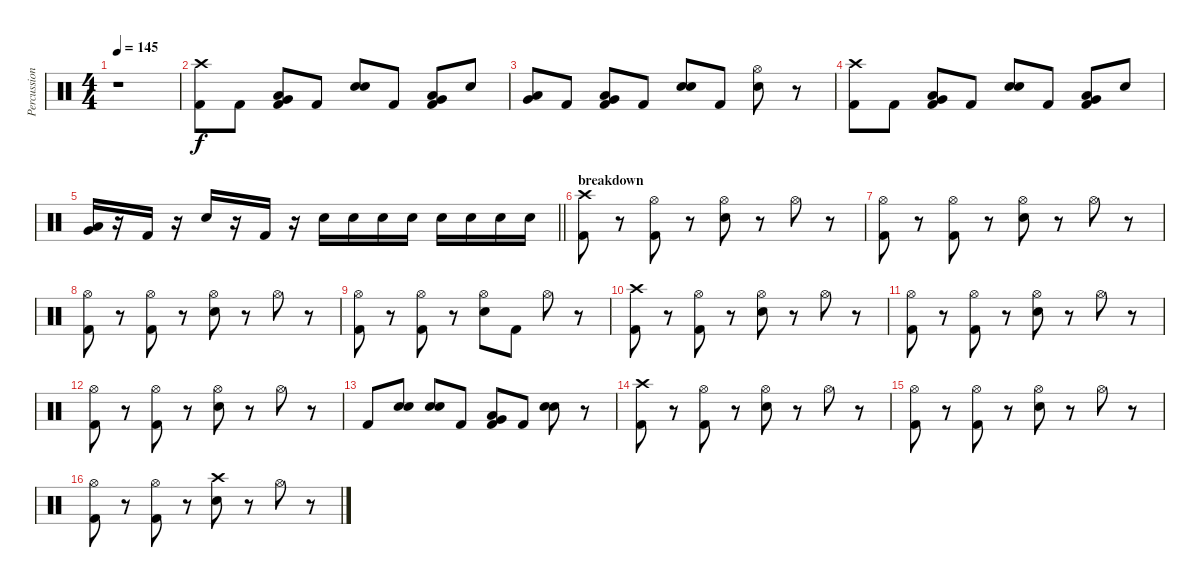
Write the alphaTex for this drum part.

\track ("Percussion" "Percussion") {instrument percussion}
\staff {score}
\articulation defaults
\ts (4 4)
\tempo 145
\clef neutral
\ks c
r.1{dy f} |
("Crash high (hit)" "Kick (hit) 2").8 "Kick (hit) 2".8 ("Low Tom (hit)" "Very Low Tom (hit)" "Kick (hit) 2").8 "Kick (hit) 2".8 ("Electric Snare (hit)" "Electric Snare (hit)").8 "Kick (hit) 2".8 ("Low Tom (hit)" "Very Low Tom (hit)" "Kick (hit) 2").8 "Electric Snare (hit)".8 |
("Low Tom (hit)" "Very Low Tom (hit)").8 "Kick (hit) 2".8 ("Low Tom (hit)" "Very Low Tom (hit)" "Kick (hit) 2").8 "Kick (hit) 2".8 ("Electric Snare (hit)" "Electric Snare (hit)").8 "Kick (hit) 2".8 ("Hi-Hat (open)" "Electric Snare (hit)").8 r.8 |
("Crash high (hit)" "Kick (hit) 2").8 "Kick (hit) 2".8 ("Low Tom (hit)" "Very Low Tom (hit)" "Kick (hit) 2").8 "Kick (hit) 2".8 ("Electric Snare (hit)" "Electric Snare (hit)").8 "Kick (hit) 2".8 ("Low Tom (hit)" "Very Low Tom (hit)" "Kick (hit) 2").8 "Electric Snare (hit)".8 |
\barLineRight lightlight
("Low Tom (hit)" "Very Low Tom (hit)").16 r.16 "Kick (hit) 2".16 r.16 "Electric Snare (hit)".16 r.16 "Kick (hit) 2".16 r.16 "Electric Snare (hit)".16 "Electric Snare (hit)".16 "Electric Snare (hit)".16 "Electric Snare (hit)".16 "Electric Snare (hit)".16 "Electric Snare (hit)".16 "Electric Snare (hit)".16 "Electric Snare (hit)".16 |
\section ("" "breakdown")
("Crash high (hit)" "Kick (hit) 2").8 r.8 ("Hi-Hat (open)" "Kick (hit) 2").8 r.8 ("Hi-Hat (open)" "Electric Snare (hit)").8 r.8 "Hi-Hat (open)".8 r.8 |
("Hi-Hat (open)" "Kick (hit) 2").8 r.8 ("Hi-Hat (open)" "Kick (hit) 2").8 r.8 ("Hi-Hat (open)" "Electric Snare (hit)").8 r.8 "Hi-Hat (open)".8 r.8 |
("Hi-Hat (open)" "Kick (hit) 2").8 r.8 ("Hi-Hat (open)" "Kick (hit) 2").8 r.8 ("Hi-Hat (open)" "Electric Snare (hit)").8 r.8 "Hi-Hat (open)".8 r.8 |
("Hi-Hat (open)" "Kick (hit) 2").8 r.8 ("Hi-Hat (open)" "Kick (hit) 2").8 r.8 ("Hi-Hat (open)" "Electric Snare (hit)").8 "Kick (hit) 2".8 "Hi-Hat (open)".8 r.8 |
("Crash high (hit)" "Kick (hit) 2").8 r.8 ("Hi-Hat (open)" "Kick (hit) 2").8 r.8 ("Hi-Hat (open)" "Electric Snare (hit)").8 r.8 "Hi-Hat (open)".8 r.8 |
("Hi-Hat (open)" "Kick (hit) 2").8 r.8 ("Hi-Hat (open)" "Kick (hit) 2").8 r.8 ("Hi-Hat (open)" "Electric Snare (hit)").8 r.8 "Hi-Hat (open)".8 r.8 |
("Hi-Hat (open)" "Kick (hit) 2").8 r.8 ("Hi-Hat (open)" "Kick (hit) 2").8 r.8 ("Hi-Hat (open)" "Electric Snare (hit)").8 r.8 "Hi-Hat (open)".8 r.8 |
"Kick (hit) 2".8 ("Electric Snare (hit)" "Electric Snare (hit)").8 ("Electric Snare (hit)" "Electric Snare (hit)").8 "Kick (hit) 2".8 ("Low Tom (hit)" "Very Low Tom (hit)" "Kick (hit) 2").8 "Kick (hit) 2".8 ("Electric Snare (hit)" "Electric Snare (hit)").8 r.8 |
("Crash high (hit)" "Kick (hit) 2").8 r.8 ("Hi-Hat (open)" "Kick (hit) 2").8 r.8 ("Hi-Hat (open)" "Electric Snare (hit)").8 r.8 "Hi-Hat (open)".8 r.8 |
("Hi-Hat (open)" "Kick (hit) 2").8 r.8 ("Hi-Hat (open)" "Kick (hit) 2").8 r.8 ("Hi-Hat (open)" "Electric Snare (hit)").8 r.8 "Hi-Hat (open)".8 r.8 |
("Hi-Hat (open)" "Kick (hit) 2").8 r.8 ("Hi-Hat (open)" "Kick (hit) 2").8 r.8 ("Crash high (hit)" "Electric Snare (hit)").8 r.8 "Hi-Hat (open)".8 r.8
